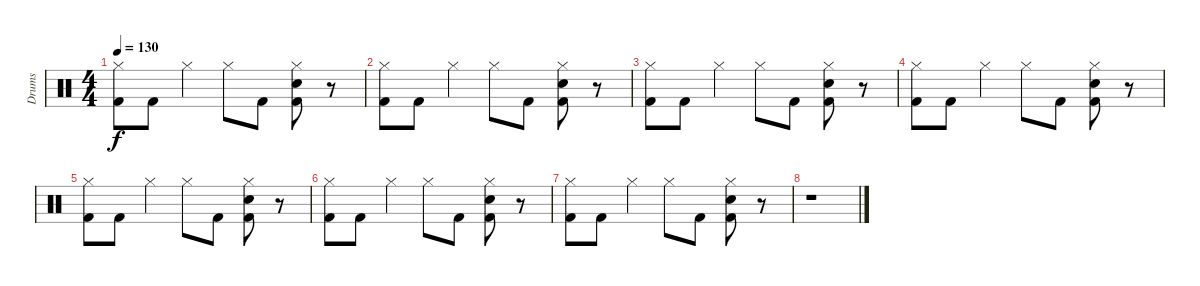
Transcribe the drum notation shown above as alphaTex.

\track ("Drums" "Drums") {instrument percussion}
\staff {score}
\articulation defaults
\ts (4 4)
\tempo 130
\clef neutral
\ks c
("Hi-Hat (closed)" "Kick (hit) 2").8{dy f volume 7} "Kick (hit) 2".8 "Hi-Hat (closed)".4 "Hi-Hat (closed)".8 "Kick (hit) 2".8 ("Hi-Hat (closed)" "Snare (hit) 2" "Kick (hit) 2").8 r.8 |
("Hi-Hat (closed)" "Kick (hit) 2").8{volume 6} "Kick (hit) 2".8 "Hi-Hat (closed)".4 "Hi-Hat (closed)".8 "Kick (hit) 2".8 ("Hi-Hat (closed)" "Snare (hit) 2" "Kick (hit) 2").8 r.8 |
("Hi-Hat (closed)" "Kick (hit) 2").8{volume 5} "Kick (hit) 2".8 "Hi-Hat (closed)".4 "Hi-Hat (closed)".8 "Kick (hit) 2".8 ("Hi-Hat (closed)" "Snare (hit) 2" "Kick (hit) 2").8 r.8 |
("Hi-Hat (closed)" "Kick (hit) 2").8{volume 4} "Kick (hit) 2".8 "Hi-Hat (closed)".4 "Hi-Hat (closed)".8 "Kick (hit) 2".8 ("Hi-Hat (closed)" "Snare (hit) 2" "Kick (hit) 2").8 r.8 |
("Hi-Hat (closed)" "Kick (hit) 2").8{volume 3} "Kick (hit) 2".8 "Hi-Hat (closed)".4 "Hi-Hat (closed)".8 "Kick (hit) 2".8 ("Hi-Hat (closed)" "Snare (hit) 2" "Kick (hit) 2").8 r.8 |
("Hi-Hat (closed)" "Kick (hit) 2").8{volume 2} "Kick (hit) 2".8 "Hi-Hat (closed)".4 "Hi-Hat (closed)".8 "Kick (hit) 2".8 ("Hi-Hat (closed)" "Snare (hit) 2" "Kick (hit) 2").8 r.8 |
("Hi-Hat (closed)" "Kick (hit) 2").8{volume 1} "Kick (hit) 2".8 "Hi-Hat (closed)".4 "Hi-Hat (closed)".8 "Kick (hit) 2".8 ("Hi-Hat (closed)" "Snare (hit) 2" "Kick (hit) 2").8 r.8 |
r.1
